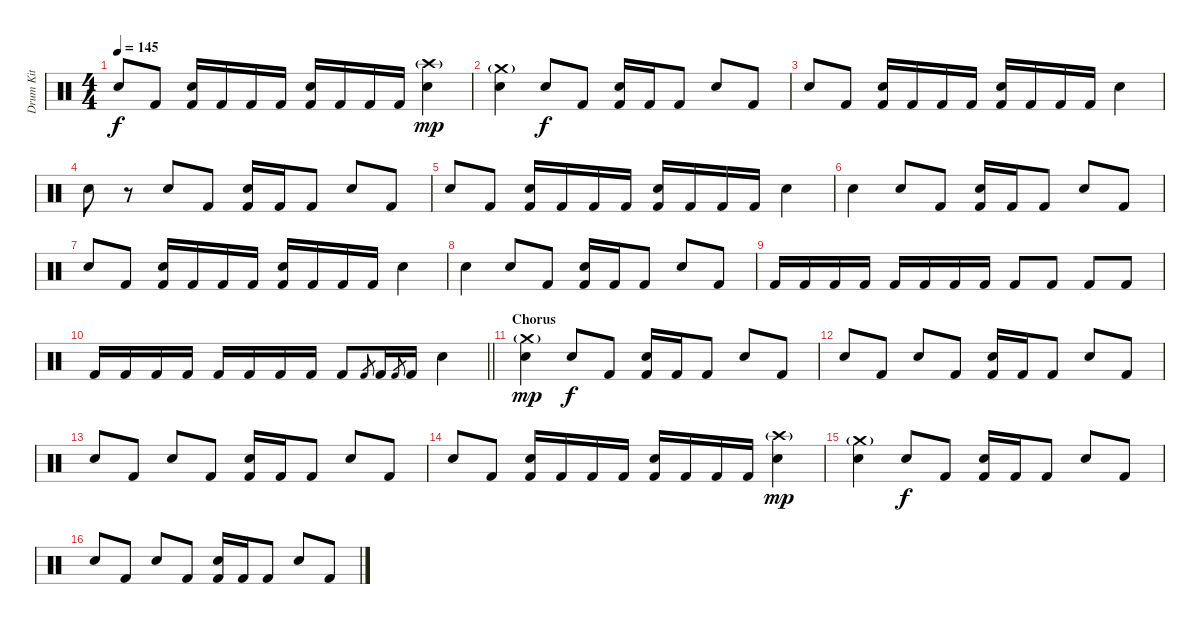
\track ("Drum Kit" "Drum Kit") {instrument percussion}
\staff {score}
\articulation defaults
\ts (4 4)
\tempo 145
\clef neutral
\ks c "Electric Snare (hit)".8{dy f} "Kick (hit) 2".8
("Electric Snare (hit)" "Kick (hit) 2").16 "Kick (hit) 2".16 "Kick (hit) 2".16 "Kick (hit) 2".16 ("Electric Snare (hit)" "Kick (hit) 2").16 "Kick (hit) 2".16 "Kick (hit) 2".16 "Kick (hit) 2".16 ("Crash high (hit)"{g} "Electric Snare (hit)").4{dy mp} |
("Crash medium (hit)"{g} "Electric Snare (hit)").4 "Electric Snare (hit)".8{dy f} "Kick (hit) 2".8 ("Electric Snare (hit)" "Kick (hit) 2").16 "Kick (hit) 2".16 "Kick (hit) 2".8 "Electric Snare (hit)".8 "Kick (hit) 2".8 |
"Electric Snare (hit)".8 "Kick (hit) 2".8 ("Electric Snare (hit)" "Kick (hit) 2").16 "Kick (hit) 2".16 "Kick (hit) 2".16 "Kick (hit) 2".16 ("Electric Snare (hit)" "Kick (hit) 2").16 "Kick (hit) 2".16 "Kick (hit) 2".16 "Kick (hit) 2".16 "Electric Snare (hit)".4 |
"Electric Snare (hit)".8 r.8 "Electric Snare (hit)".8 "Kick (hit) 2".8 ("Electric Snare (hit)" "Kick (hit) 2").16 "Kick (hit) 2".16 "Kick (hit) 2".8 "Electric Snare (hit)".8 "Kick (hit) 2".8 |
"Electric Snare (hit)".8 "Kick (hit) 2".8 ("Electric Snare (hit)" "Kick (hit) 2").16 "Kick (hit) 2".16 "Kick (hit) 2".16 "Kick (hit) 2".16 ("Electric Snare (hit)" "Kick (hit) 2").16 "Kick (hit) 2".16 "Kick (hit) 2".16 "Kick (hit) 2".16 "Electric Snare (hit)".4 |
"Electric Snare (hit)".4 "Electric Snare (hit)".8 "Kick (hit) 2".8 ("Electric Snare (hit)" "Kick (hit) 2").16 "Kick (hit) 2".16 "Kick (hit) 2".8 "Electric Snare (hit)".8 "Kick (hit) 2".8 |
"Electric Snare (hit)".8 "Kick (hit) 2".8 ("Electric Snare (hit)" "Kick (hit) 2").16 "Kick (hit) 2".16 "Kick (hit) 2".16 "Kick (hit) 2".16 ("Electric Snare (hit)" "Kick (hit) 2").16 "Kick (hit) 2".16 "Kick (hit) 2".16 "Kick (hit) 2".16 "Electric Snare (hit)".4 |
"Electric Snare (hit)".4 "Electric Snare (hit)".8 "Kick (hit) 2".8 ("Electric Snare (hit)" "Kick (hit) 2").16 "Kick (hit) 2".16 "Kick (hit) 2".8 "Electric Snare (hit)".8 "Kick (hit) 2".8 |
"Kick (hit) 2".16 "Kick (hit) 2".16 "Kick (hit) 2".16 "Kick (hit) 2".16 "Kick (hit) 2".16 "Kick (hit) 2".16 "Kick (hit) 2".16 "Kick (hit) 2".16 "Kick (hit) 2".8 "Kick (hit) 2".8 "Kick (hit) 2".8 "Kick (hit) 2".8 |
\barLineRight lightlight "Kick (hit) 2".16 "Kick (hit) 2".16 "Kick (hit) 2".16 "Kick (hit) 2".16 "Kick (hit) 2".16 "Kick (hit) 2".16 "Kick (hit) 2".16 "Kick (hit) 2".16 "Kick (hit) 2".8 "Kick (hit) 2".8{gr} "Kick (hit) 2".16 "Kick (hit) 2".8{gr} "Kick (hit) 2".16 "Electric Snare (hit)".4
|
\section ("" "Chorus")
("Crash medium (hit)"{g} "Electric Snare (hit)").4{dy mp} "Electric Snare (hit)".8{dy f} "Kick (hit) 2".8 ("Electric Snare (hit)" "Kick (hit) 2").16 "Kick (hit) 2".16 "Kick (hit) 2".8 "Electric Snare (hit)".8 "Kick (hit) 2".8 |
"Electric Snare (hit)".8 "Kick (hit) 2".8 "Electric Snare (hit)".8 "Kick (hit) 2".8 ("Electric Snare (hit)" "Kick (hit) 2").16 "Kick (hit) 2".16 "Kick (hit) 2".8 "Electric Snare (hit)".8 "Kick (hit) 2".8 |
"Electric Snare (hit)".8 "Kick (hit) 2".8 "Electric Snare (hit)".8 "Kick (hit) 2".8 ("Electric Snare (hit)" "Kick (hit) 2").16 "Kick (hit) 2".16 "Kick (hit) 2".8 "Electric Snare (hit)".8 "Kick (hit) 2".8 |
"Electric Snare (hit)".8 "Kick (hit) 2".8 ("Electric Snare (hit)" "Kick (hit) 2").16 "Kick (hit) 2".16 "Kick (hit) 2".16 "Kick (hit) 2".16 ("Electric Snare (hit)" "Kick (hit) 2").16 "Kick (hit) 2".16 "Kick (hit) 2".16 "Kick (hit) 2".16 ("Crash high (hit)"{g} "Electric Snare (hit)").4{dy mp} |
("Crash medium (hit)"{g} "Electric Snare (hit)").4 "Electric Snare (hit)".8{dy f} "Kick (hit) 2".8 ("Electric Snare (hit)" "Kick (hit) 2").16 "Kick (hit) 2".16 "Kick (hit) 2".8 "Electric Snare (hit)".8 "Kick (hit) 2".8 |
"Electric Snare (hit)".8 "Kick (hit) 2".8 "Electric Snare (hit)".8 "Kick (hit) 2".8 ("Electric Snare (hit)" "Kick (hit) 2").16 "Kick (hit) 2".16 "Kick (hit) 2".8 "Electric Snare (hit)".8 "Kick (hit) 2".8
